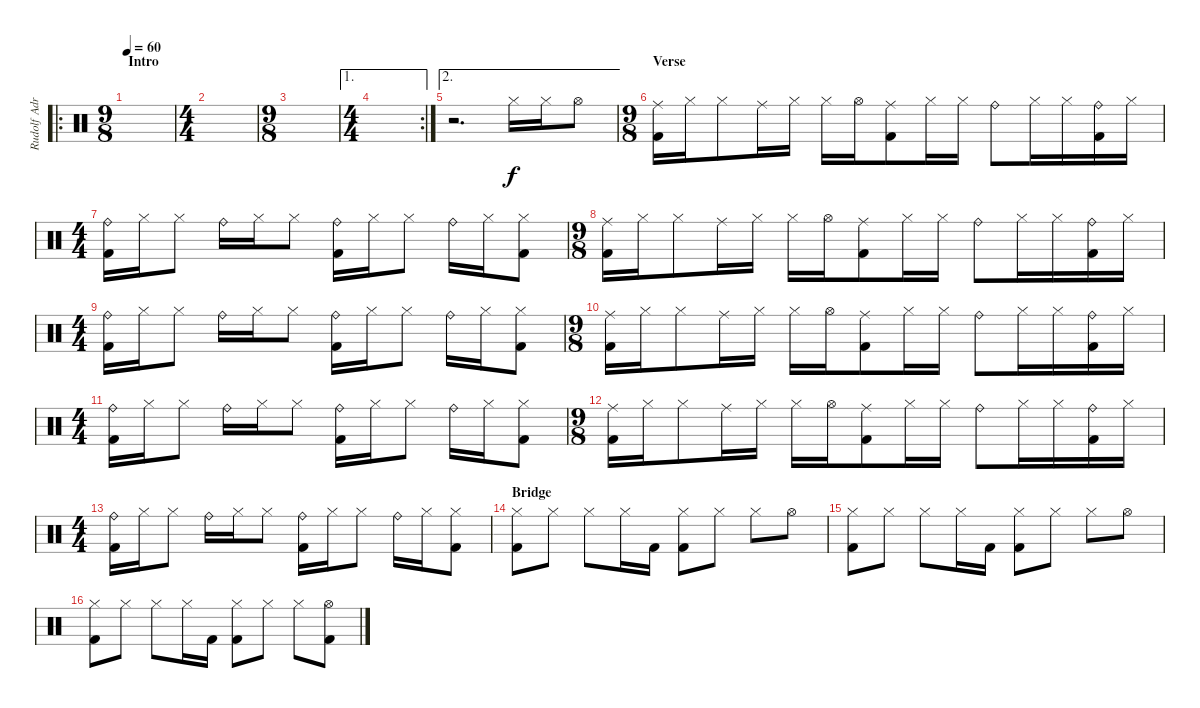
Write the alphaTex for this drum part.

\track ("Rudolf Adrianus Jolie" "Rudolf Adr") {instrument percussion}
\staff {score}
\articulation defaults
\ro
\ts (9 8)
\section ("" "Intro")
\tempo 60
\clef neutral
\ks c
|
\ts (4 4)
|
\ts (9 8)
|
\ae 1
\rc 2
\ts (4 4)
|
\ae 2
r.2{d} "Hi-Hat (closed)".16 "Hi-Hat (closed)".16 "Hi-Hat (open)".8 |
\ts (9 8)
\section ("" "Verse")
("Ride (middle)" "Kick (hit) 2").16 "Hi-Hat (closed)".16 "Hi-Hat (closed)".8 "Ride (middle)".16 "Hi-Hat (closed)".16 "Hi-Hat (closed)".16 "Hi-Hat (open)".16 ("Ride (middle)" "Kick (hit) 2").8 "Hi-Hat (closed)".16 "Hi-Hat (closed)".16 "Ride (bell)".8 "Hi-Hat (closed)".16 "Hi-Hat (closed)".16 ("Ride (bell)" "Kick (hit) 2").16 "Hi-Hat (closed)".16 |
\ts (4 4)
("Ride (bell)" "Kick (hit) 2").16 "Hi-Hat (closed)".16 "Hi-Hat (closed)".8 "Ride (bell)".16 "Hi-Hat (closed)".16 "Hi-Hat (closed)".8 ("Ride (bell)" "Kick (hit) 2").16 "Hi-Hat (closed)".16 "Hi-Hat (closed)".8 "Ride (bell)".16 "Hi-Hat (closed)".16 ("Hi-Hat (closed)" "Kick (hit) 2").8 |
\ts (9 8)
("Ride (middle)" "Kick (hit) 2").16 "Hi-Hat (closed)".16 "Hi-Hat (closed)".8 "Ride (middle)".16 "Hi-Hat (closed)".16 "Hi-Hat (closed)".16 "Hi-Hat (open)".16 ("Ride (middle)" "Kick (hit) 2").8 "Hi-Hat (closed)".16 "Hi-Hat (closed)".16 "Ride (bell)".8 "Hi-Hat (closed)".16 "Hi-Hat (closed)".16 ("Ride (bell)" "Kick (hit) 2").16 "Hi-Hat (closed)".16 |
\ts (4 4)
("Ride (bell)" "Kick (hit) 2").16 "Hi-Hat (closed)".16 "Hi-Hat (closed)".8 "Ride (bell)".16 "Hi-Hat (closed)".16 "Hi-Hat (closed)".8 ("Ride (bell)" "Kick (hit) 2").16 "Hi-Hat (closed)".16 "Hi-Hat (closed)".8 "Ride (bell)".16 "Hi-Hat (closed)".16 ("Hi-Hat (closed)" "Kick (hit) 2").8 |
\ts (9 8)
("Ride (middle)" "Kick (hit) 2").16 "Hi-Hat (closed)".16 "Hi-Hat (closed)".8 "Ride (middle)".16 "Hi-Hat (closed)".16 "Hi-Hat (closed)".16 "Hi-Hat (open)".16 ("Ride (middle)" "Kick (hit) 2").8 "Hi-Hat (closed)".16 "Hi-Hat (closed)".16 "Ride (bell)".8 "Hi-Hat (closed)".16 "Hi-Hat (closed)".16 ("Ride (bell)" "Kick (hit) 2").16 "Hi-Hat (closed)".16 |
\ts (4 4)
("Ride (bell)" "Kick (hit) 2").16 "Hi-Hat (closed)".16 "Hi-Hat (closed)".8 "Ride (bell)".16 "Hi-Hat (closed)".16 "Hi-Hat (closed)".8 ("Ride (bell)" "Kick (hit) 2").16 "Hi-Hat (closed)".16 "Hi-Hat (closed)".8 "Ride (bell)".16 "Hi-Hat (closed)".16 ("Hi-Hat (closed)" "Kick (hit) 2").8 |
\ts (9 8)
("Ride (middle)" "Kick (hit) 2").16 "Hi-Hat (closed)".16 "Hi-Hat (closed)".8 "Ride (middle)".16 "Hi-Hat (closed)".16 "Hi-Hat (closed)".16 "Hi-Hat (open)".16 ("Ride (middle)" "Kick (hit) 2").8 "Hi-Hat (closed)".16 "Hi-Hat (closed)".16 "Ride (bell)".8 "Hi-Hat (closed)".16 "Hi-Hat (closed)".16 ("Ride (bell)" "Kick (hit) 2").16 "Hi-Hat (closed)".16 |
\ts (4 4)
("Ride (bell)" "Kick (hit) 2").16 "Hi-Hat (closed)".16 "Hi-Hat (closed)".8 "Ride (bell)".16 "Hi-Hat (closed)".16 "Hi-Hat (closed)".8 ("Ride (bell)" "Kick (hit) 2").16 "Hi-Hat (closed)".16 "Hi-Hat (closed)".8 "Ride (bell)".16 "Hi-Hat (closed)".16 ("Hi-Hat (closed)" "Kick (hit) 2").8 |
\section ("" "Bridge")
("Hi-Hat (closed)" "Kick (hit) 2").8 "Hi-Hat (closed)".8 "Hi-Hat (closed)".8 "Hi-Hat (closed)".16 "Kick (hit) 2".16 ("Hi-Hat (closed)" "Kick (hit) 2").8 "Hi-Hat (closed)".8 "Hi-Hat (closed)".8 "Hi-Hat (open)".8 |
("Hi-Hat (closed)" "Kick (hit) 2").8 "Hi-Hat (closed)".8 "Hi-Hat (closed)".8 "Hi-Hat (closed)".16 "Kick (hit) 2".16 ("Hi-Hat (closed)" "Kick (hit) 2").8 "Hi-Hat (closed)".8 "Hi-Hat (closed)".8 "Hi-Hat (open)".8 |
("Hi-Hat (closed)" "Kick (hit) 2").8 "Hi-Hat (closed)".8 "Hi-Hat (closed)".8 "Hi-Hat (closed)".16 "Kick (hit) 2".16 ("Hi-Hat (closed)" "Kick (hit) 2").8 "Hi-Hat (closed)".8 "Hi-Hat (closed)".8 ("Hi-Hat (open)" "Kick (hit) 2").8
